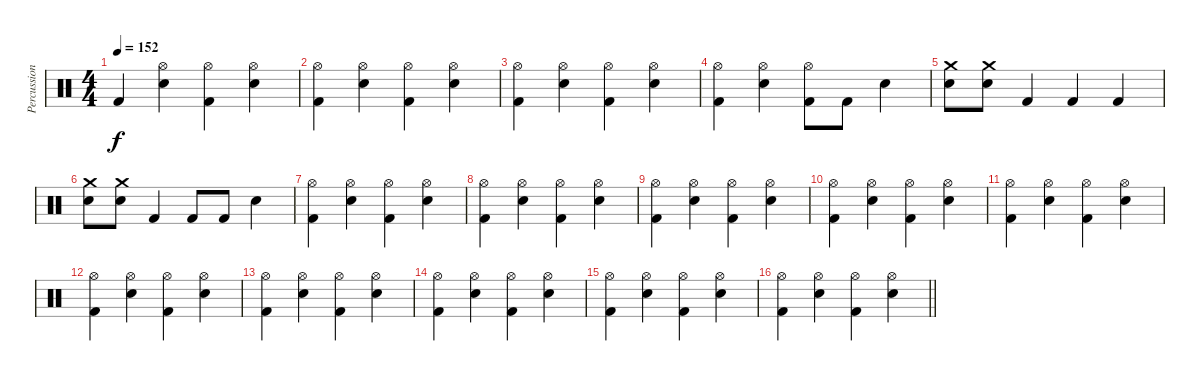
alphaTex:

\track ("Percussion" "Percussion") {instrument percussion}
\staff {score}
\articulation defaults
\ts (4 4)
\tempo 152
\clef neutral
\ks c "Kick (hit) 2".4{dy f}
("Hi-Hat (open)" "Electric Snare (hit)").4 ("Hi-Hat (open)" "Kick (hit) 2").4 ("Hi-Hat (open)" "Electric Snare (hit)").4 |
("Hi-Hat (open)" "Kick (hit) 2").4 ("Hi-Hat (open)" "Electric Snare (hit)").4 ("Hi-Hat (open)" "Kick (hit) 2").4 ("Hi-Hat (open)" "Electric Snare (hit)").4 |
("Hi-Hat (open)" "Kick (hit) 2").4 ("Hi-Hat (open)" "Electric Snare (hit)").4 ("Hi-Hat (open)" "Kick (hit) 2").4 ("Hi-Hat (open)" "Electric Snare (hit)").4 |
("Hi-Hat (open)" "Kick (hit) 2").4 ("Hi-Hat (open)" "Electric Snare (hit)").4 ("Hi-Hat (open)" "Kick (hit) 2").8 "Kick (hit) 2".8 "Electric Snare (hit)".4 |
("Crash medium (hit)" "Electric Snare (hit)").8 ("Crash medium (hit)" "Electric Snare (hit)").8 "Kick (hit) 2".4 "Kick (hit) 2".4 "Kick (hit) 2".4 |
("Crash medium (hit)" "Electric Snare (hit)").8 ("Crash medium (hit)" "Electric Snare (hit)").8 "Kick (hit) 2".4 "Kick (hit) 2".8 "Kick (hit) 2".8 "Electric Snare (hit)".4 |
("Hi-Hat (open)" "Kick (hit) 2").4 ("Hi-Hat (open)" "Electric Snare (hit)").4 ("Hi-Hat (open)" "Kick (hit) 2").4 ("Hi-Hat (open)" "Electric Snare (hit)").4 |
("Hi-Hat (open)" "Kick (hit) 2").4 ("Hi-Hat (open)" "Electric Snare (hit)").4 ("Hi-Hat (open)" "Kick (hit) 2").4 ("Hi-Hat (open)" "Electric Snare (hit)").4 |
("Hi-Hat (open)" "Kick (hit) 2").4 ("Hi-Hat (open)" "Electric Snare (hit)").4 ("Hi-Hat (open)" "Kick (hit) 2").4 ("Hi-Hat (open)" "Electric Snare (hit)").4 |
("Hi-Hat (open)" "Kick (hit) 2").4 ("Hi-Hat (open)" "Electric Snare (hit)").4 ("Hi-Hat (open)" "Kick (hit) 2").4 ("Hi-Hat (open)" "Electric Snare (hit)").4 |
("Hi-Hat (open)" "Kick (hit) 2").4 ("Hi-Hat (open)" "Electric Snare (hit)").4 ("Hi-Hat (open)" "Kick (hit) 2").4 ("Hi-Hat (open)" "Electric Snare (hit)").4 |
("Hi-Hat (open)" "Kick (hit) 2").4 ("Hi-Hat (open)" "Electric Snare (hit)").4 ("Hi-Hat (open)" "Kick (hit) 2").4 ("Hi-Hat (open)" "Electric Snare (hit)").4 |
("Hi-Hat (open)" "Kick (hit) 2").4 ("Hi-Hat (open)" "Electric Snare (hit)").4 ("Hi-Hat (open)" "Kick (hit) 2").4 ("Hi-Hat (open)" "Electric Snare (hit)").4 |
("Hi-Hat (open)" "Kick (hit) 2").4 ("Hi-Hat (open)" "Electric Snare (hit)").4 ("Hi-Hat (open)" "Kick (hit) 2").4 ("Hi-Hat (open)" "Electric Snare (hit)").4 |
("Hi-Hat (open)" "Kick (hit) 2").4 ("Hi-Hat (open)" "Electric Snare (hit)").4 ("Hi-Hat (open)" "Kick (hit) 2").4 ("Hi-Hat (open)" "Electric Snare (hit)").4 |
\barLineRight lightlight
("Hi-Hat (open)" "Kick (hit) 2").4 ("Hi-Hat (open)" "Electric Snare (hit)").4 ("Hi-Hat (open)" "Kick (hit) 2").4 ("Hi-Hat (open)" "Electric Snare (hit)").4
